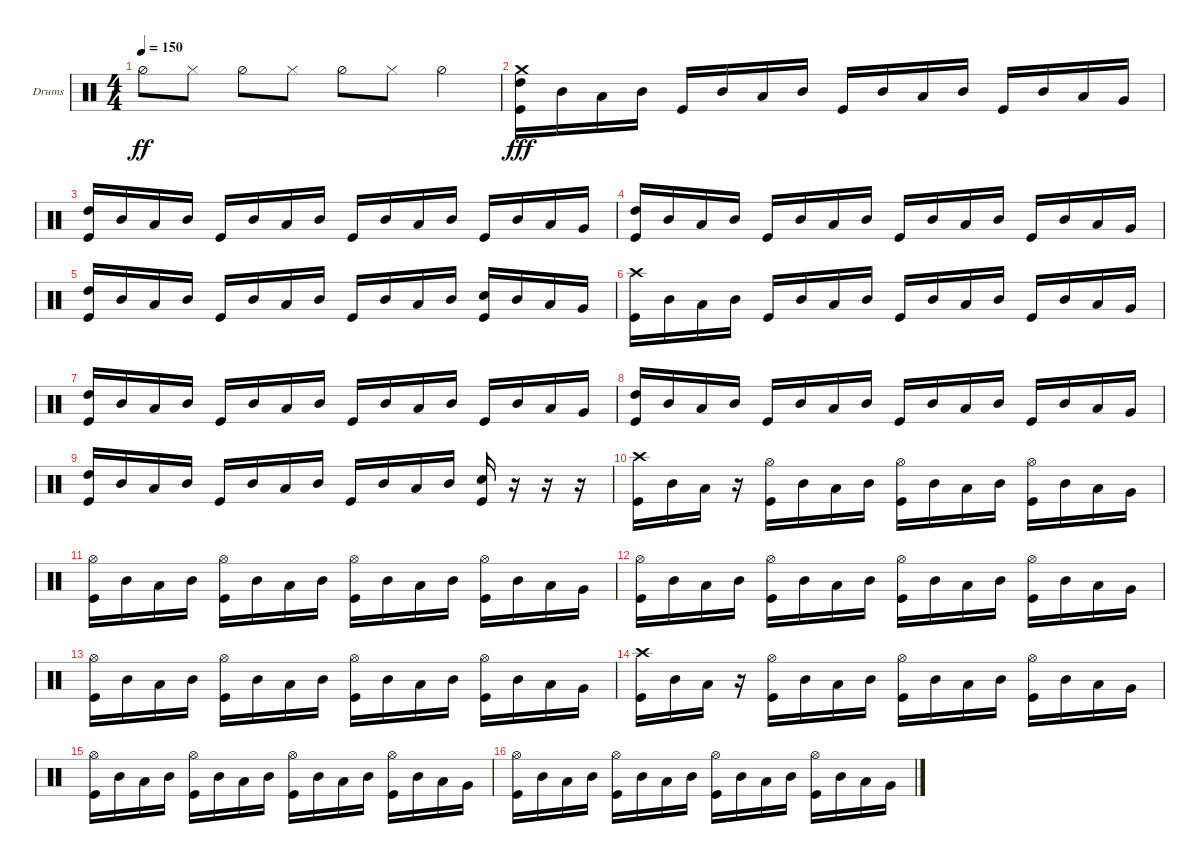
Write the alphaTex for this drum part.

\bracketExtendMode groupsimilarinstruments
\firstSystemTrackNameOrientation horizontal
\otherSystemsTrackNameOrientation horizontal
\track ("Corey" "Drums") {instrument percussion}
\staff {score}
\articulation defaults
\ts (4 4)
\tempo 150
\clef neutral
\ks c "Hi-Hat (half)".8{dy ff} "Hi-Hat (closed)".8 "Hi-Hat (half)".8 "Hi-Hat (closed)".8 "Hi-Hat (half)".8 "Hi-Hat (closed)".8 "Hi-Hat (half)".4
|
("High Tom (hit)" "Kick (hit)" "Crash medium (hit)").16{dy fff} "Mid Tom (hit)".16 "Low Tom (hit)".16 "Mid Tom (hit)".16 "Kick (hit)".16 "Mid Tom (hit)".16 "Low Tom (hit)".16 "Mid Tom (hit)".16 "Kick (hit)".16 "Mid Tom (hit)".16 "Low Tom (hit)".16 "Mid Tom (hit)".16 "Kick (hit)".16 "Mid Tom (hit)".16 "Low Tom (hit)".16 "Very Low Tom (hit)".16 |
("High Tom (hit)" "Kick (hit)").16 "Mid Tom (hit)".16 "Low Tom (hit)".16 "Mid Tom (hit)".16 "Kick (hit)".16 "Mid Tom (hit)".16 "Low Tom (hit)".16 "Mid Tom (hit)".16 "Kick (hit)".16 "Mid Tom (hit)".16 "Low Tom (hit)".16 "Mid Tom (hit)".16 "Kick (hit)".16 "Mid Tom (hit)".16 "Low Tom (hit)".16 "Very Low Tom (hit)".16 |
("High Tom (hit)" "Kick (hit)").16 "Mid Tom (hit)".16 "Low Tom (hit)".16 "Mid Tom (hit)".16 "Kick (hit)".16 "Mid Tom (hit)".16 "Low Tom (hit)".16 "Mid Tom (hit)".16 "Kick (hit)".16 "Mid Tom (hit)".16 "Low Tom (hit)".16 "Mid Tom (hit)".16 "Kick (hit)".16 "Mid Tom (hit)".16 "Low Tom (hit)".16 "Very Low Tom (hit)".16 |
("Kick (hit)" "High Tom (hit)").16 "Mid Tom (hit)".16 "Low Tom (hit)".16 "Mid Tom (hit)".16 "Kick (hit)".16 "Mid Tom (hit)".16 "Low Tom (hit)".16 "Mid Tom (hit)".16 "Kick (hit)".16 "Mid Tom (hit)".16 "Low Tom (hit)".16 "Mid Tom (hit)".16 ("Kick (hit)" "Snare (hit) 2").16 "Mid Tom (hit)".16 "Low Tom (hit)".16 "Very Low Tom (hit)".16 |
("Kick (hit)" "Crash high (hit)").16 "Mid Tom (hit)".16 "Low Tom (hit)".16 "Mid Tom (hit)".16 "Kick (hit)".16 "Mid Tom (hit)".16 "Low Tom (hit)".16 "Mid Tom (hit)".16 "Kick (hit)".16 "Mid Tom (hit)".16 "Low Tom (hit)".16 "Mid Tom (hit)".16 "Kick (hit)".16 "Mid Tom (hit)".16 "Low Tom (hit)".16 "Very Low Tom (hit)".16 |
("High Tom (hit)" "Kick (hit)").16 "Mid Tom (hit)".16 "Low Tom (hit)".16 "Mid Tom (hit)".16 "Kick (hit)".16 "Mid Tom (hit)".16 "Low Tom (hit)".16 "Mid Tom (hit)".16 "Kick (hit)".16 "Mid Tom (hit)".16 "Low Tom (hit)".16 "Mid Tom (hit)".16 "Kick (hit)".16 "Mid Tom (hit)".16 "Low Tom (hit)".16 "Very Low Tom (hit)".16 |
("High Tom (hit)" "Kick (hit)").16 "Mid Tom (hit)".16 "Low Tom (hit)".16 "Mid Tom (hit)".16 "Kick (hit)".16 "Mid Tom (hit)".16 "Low Tom (hit)".16 "Mid Tom (hit)".16 "Kick (hit)".16 "Mid Tom (hit)".16 "Low Tom (hit)".16 "Mid Tom (hit)".16 "Kick (hit)".16 "Mid Tom (hit)".16 "Low Tom (hit)".16 "Very Low Tom (hit)".16 |
("High Tom (hit)" "Kick (hit)").16 "Mid Tom (hit)".16 "Low Tom (hit)".16 "Mid Tom (hit)".16 "Kick (hit)".16 "Mid Tom (hit)".16 "Low Tom (hit)".16 "Mid Tom (hit)".16 "Kick (hit)".16 "Mid Tom (hit)".16 "Low Tom (hit)".16 "Mid Tom (hit)".16 ("Kick (hit)" "Snare (hit) 2").16 r.16 r.16 r.16 |
("Kick (hit)" "Crash high (hit)").16 "Mid Tom (hit)".16 "Low Tom (hit)".16 r.16 ("Kick (hit)" "Hi-Hat (open)").16 "Mid Tom (hit)".16 "Low Tom (hit)".16 "Mid Tom (hit)".16 ("Kick (hit)" "Hi-Hat (open)").16 "Mid Tom (hit)".16 "Low Tom (hit)".16 "Mid Tom (hit)".16 ("Kick (hit)" "Hi-Hat (open)").16 "Mid Tom (hit)".16 "Low Tom (hit)".16 "Very Low Tom (hit)".16 |
("Kick (hit)" "Hi-Hat (open)").16 "Mid Tom (hit)".16 "Low Tom (hit)".16 "Mid Tom (hit)".16 ("Kick (hit)" "Hi-Hat (open)").16 "Mid Tom (hit)".16 "Low Tom (hit)".16 "Mid Tom (hit)".16 ("Kick (hit)" "Hi-Hat (open)").16 "Mid Tom (hit)".16 "Low Tom (hit)".16 "Mid Tom (hit)".16 ("Kick (hit)" "Hi-Hat (open)").16 "Mid Tom (hit)".16 "Low Tom (hit)".16 "Very Low Tom (hit)".16 |
("Kick (hit)" "Hi-Hat (open)").16 "Mid Tom (hit)".16 "Low Tom (hit)".16 "Mid Tom (hit)".16 ("Kick (hit)" "Hi-Hat (open)").16 "Mid Tom (hit)".16 "Low Tom (hit)".16 "Mid Tom (hit)".16 ("Kick (hit)" "Hi-Hat (open)").16 "Mid Tom (hit)".16 "Low Tom (hit)".16 "Mid Tom (hit)".16 ("Kick (hit)" "Hi-Hat (open)").16 "Mid Tom (hit)".16 "Low Tom (hit)".16 "Very Low Tom (hit)".16 |
("Kick (hit)" "Hi-Hat (open)").16 "Mid Tom (hit)".16 "Low Tom (hit)".16 "Mid Tom (hit)".16 ("Kick (hit)" "Hi-Hat (open)").16 "Mid Tom (hit)".16 "Low Tom (hit)".16 "Mid Tom (hit)".16 ("Kick (hit)" "Hi-Hat (open)").16 "Mid Tom (hit)".16 "Low Tom (hit)".16 "Mid Tom (hit)".16 ("Kick (hit)" "Hi-Hat (open)").16 "Mid Tom (hit)".16 "Low Tom (hit)".16 "Very Low Tom (hit)".16 |
("Kick (hit)" "Crash high (hit)").16 "Mid Tom (hit)".16 "Low Tom (hit)".16 r.16 ("Kick (hit)" "Hi-Hat (open)").16 "Mid Tom (hit)".16 "Low Tom (hit)".16 "Mid Tom (hit)".16 ("Kick (hit)" "Hi-Hat (open)").16 "Mid Tom (hit)".16 "Low Tom (hit)".16 "Mid Tom (hit)".16 ("Kick (hit)" "Hi-Hat (open)").16 "Mid Tom (hit)".16 "Low Tom (hit)".16 "Very Low Tom (hit)".16 |
("Kick (hit)" "Hi-Hat (open)").16 "Mid Tom (hit)".16 "Low Tom (hit)".16 "Mid Tom (hit)".16 ("Kick (hit)" "Hi-Hat (open)").16 "Mid Tom (hit)".16 "Low Tom (hit)".16 "Mid Tom (hit)".16 ("Kick (hit)" "Hi-Hat (open)").16 "Mid Tom (hit)".16 "Low Tom (hit)".16 "Mid Tom (hit)".16 ("Kick (hit)" "Hi-Hat (open)").16 "Mid Tom (hit)".16 "Low Tom (hit)".16 "Very Low Tom (hit)".16 |
("Kick (hit)" "Hi-Hat (open)").16 "Mid Tom (hit)".16 "Low Tom (hit)".16 "Mid Tom (hit)".16 ("Kick (hit)" "Hi-Hat (open)").16 "Mid Tom (hit)".16 "Low Tom (hit)".16 "Mid Tom (hit)".16 ("Kick (hit)" "Hi-Hat (open)").16 "Mid Tom (hit)".16 "Low Tom (hit)".16 "Mid Tom (hit)".16 ("Kick (hit)" "Hi-Hat (open)").16 "Mid Tom (hit)".16 "Low Tom (hit)".16 "Very Low Tom (hit)".16
